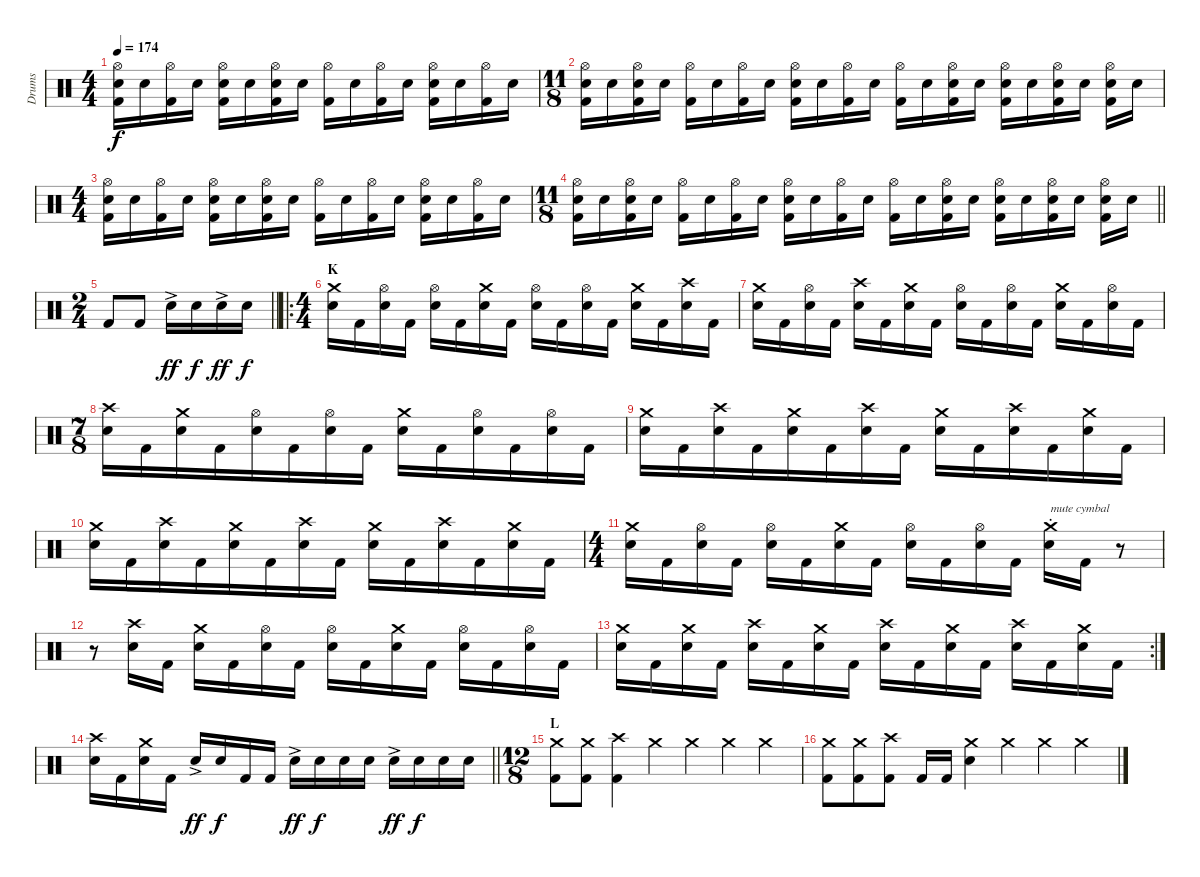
\track ("Drums" "Drums") {instrument percussion}
\staff {score}
\articulation defaults
\ts (4 4)
\tempo 174
\clef neutral
\ks c
("Hi-Hat (open)" "Electric Snare (hit)" "Kick (hit) 2").16{dy f} "Electric Snare (hit)".16 ("Hi-Hat (open)" "Kick (hit) 2").16 "Electric Snare (hit)".16 ("Hi-Hat (open)" "Electric Snare (hit)" "Kick (hit) 2").16 "Electric Snare (hit)".16 ("Hi-Hat (open)" "Electric Snare (hit)" "Kick (hit) 2").16 "Electric Snare (hit)".16 ("Hi-Hat (open)" "Kick (hit) 2").16 "Electric Snare (hit)".16 ("Hi-Hat (open)" "Kick (hit) 2").16 "Electric Snare (hit)".16 ("Hi-Hat (open)" "Electric Snare (hit)" "Kick (hit) 2").16 "Electric Snare (hit)".16 ("Hi-Hat (open)" "Kick (hit) 2").16 "Electric Snare (hit)".16 |
\ts (11 8)
("Hi-Hat (open)" "Electric Snare (hit)" "Kick (hit) 2").16 "Electric Snare (hit)".16 ("Hi-Hat (open)" "Electric Snare (hit)" "Kick (hit) 2").16 "Electric Snare (hit)".16 ("Hi-Hat (open)" "Kick (hit) 2").16 "Electric Snare (hit)".16 ("Hi-Hat (open)" "Kick (hit) 2").16 "Electric Snare (hit)".16 ("Hi-Hat (open)" "Electric Snare (hit)" "Kick (hit) 2").16 "Electric Snare (hit)".16 ("Hi-Hat (open)" "Kick (hit) 2").16 "Electric Snare (hit)".16 ("Hi-Hat (open)" "Kick (hit) 2").16 "Electric Snare (hit)".16 ("Hi-Hat (open)" "Electric Snare (hit)" "Kick (hit) 2").16 "Electric Snare (hit)".16 ("Hi-Hat (open)" "Electric Snare (hit)" "Kick (hit) 2").16 "Electric Snare (hit)".16 ("Hi-Hat (open)" "Electric Snare (hit)" "Kick (hit) 2").16 "Electric Snare (hit)".16 ("Hi-Hat (open)" "Electric Snare (hit)" "Kick (hit) 2").16 "Electric Snare (hit)".16 |
\ts (4 4)
("Hi-Hat (open)" "Electric Snare (hit)" "Kick (hit) 2").16 "Electric Snare (hit)".16 ("Hi-Hat (open)" "Kick (hit) 2").16 "Electric Snare (hit)".16 ("Hi-Hat (open)" "Electric Snare (hit)" "Kick (hit) 2").16 "Electric Snare (hit)".16 ("Hi-Hat (open)" "Electric Snare (hit)" "Kick (hit) 2").16 "Electric Snare (hit)".16 ("Hi-Hat (open)" "Kick (hit) 2").16 "Electric Snare (hit)".16 ("Hi-Hat (open)" "Kick (hit) 2").16 "Electric Snare (hit)".16 ("Hi-Hat (open)" "Electric Snare (hit)" "Kick (hit) 2").16 "Electric Snare (hit)".16 ("Hi-Hat (open)" "Kick (hit) 2").16 "Electric Snare (hit)".16 |
\ts (11 8)
\barLineRight lightlight
("Hi-Hat (open)" "Electric Snare (hit)" "Kick (hit) 2").16 "Electric Snare (hit)".16 ("Hi-Hat (open)" "Electric Snare (hit)" "Kick (hit) 2").16 "Electric Snare (hit)".16 ("Hi-Hat (open)" "Kick (hit) 2").16 "Electric Snare (hit)".16 ("Hi-Hat (open)" "Kick (hit) 2").16 "Electric Snare (hit)".16 ("Hi-Hat (open)" "Electric Snare (hit)" "Kick (hit) 2").16 "Electric Snare (hit)".16 ("Hi-Hat (open)" "Kick (hit) 2").16 "Electric Snare (hit)".16 ("Hi-Hat (open)" "Kick (hit) 2").16 "Electric Snare (hit)".16 ("Hi-Hat (open)" "Electric Snare (hit)" "Kick (hit) 2").16 "Electric Snare (hit)".16 ("Hi-Hat (open)" "Electric Snare (hit)" "Kick (hit) 2").16 "Electric Snare (hit)".16 ("Hi-Hat (open)" "Electric Snare (hit)" "Kick (hit) 2").16 "Electric Snare (hit)".16 ("Hi-Hat (open)" "Electric Snare (hit)" "Kick (hit) 2").16 "Electric Snare (hit)".16 |
\ts (2 4)
\barLineRight lightlight "Kick (hit) 2".8 "Kick (hit) 2".8 "Electric Snare (hit)"{ac}.16{dy ff} "Electric Snare (hit)".16{dy f} "Electric Snare (hit)"{ac}.16{dy ff} "Electric Snare (hit)".16{dy f}
|
\ro
\ts (4 4)
\section ("" "K")
("Crash medium (hit)" "Electric Snare (hit)").16 "Kick (hit) 2".16 ("Hi-Hat (open)" "Electric Snare (hit)").16 "Kick (hit) 2".16 ("Hi-Hat (open)" "Electric Snare (hit)").16 "Kick (hit) 2".16 ("Crash medium (hit)" "Electric Snare (hit)").16 "Kick (hit) 2".16 ("Hi-Hat (open)" "Electric Snare (hit)").16 "Kick (hit) 2".16 ("Hi-Hat (open)" "Electric Snare (hit)").16 "Kick (hit) 2".16 ("Crash medium (hit)" "Electric Snare (hit)").16 "Kick (hit) 2".16 ("Crash high (hit)" "Electric Snare (hit)").16 "Kick (hit) 2".16 |
("Crash medium (hit)" "Electric Snare (hit)").16 "Kick (hit) 2".16 ("Hi-Hat (open)" "Electric Snare (hit)").16 "Kick (hit) 2".16 ("Crash high (hit)" "Electric Snare (hit)").16 "Kick (hit) 2".16 ("Crash medium (hit)" "Electric Snare (hit)").16 "Kick (hit) 2".16 ("Hi-Hat (open)" "Electric Snare (hit)").16 "Kick (hit) 2".16 ("Hi-Hat (open)" "Electric Snare (hit)").16 "Kick (hit) 2".16 ("Crash medium (hit)" "Electric Snare (hit)").16 "Kick (hit) 2".16 ("Hi-Hat (open)" "Electric Snare (hit)").16 "Kick (hit) 2".16 |
\ts (7 8)
("Crash high (hit)" "Electric Snare (hit)").16 "Kick (hit) 2".16 ("Crash medium (hit)" "Electric Snare (hit)").16 "Kick (hit) 2".16 ("Hi-Hat (open)" "Electric Snare (hit)").16 "Kick (hit) 2".16 ("Hi-Hat (open)" "Electric Snare (hit)").16 "Kick (hit) 2".16 ("Crash medium (hit)" "Electric Snare (hit)").16 "Kick (hit) 2".16 ("Hi-Hat (open)" "Electric Snare (hit)").16 "Kick (hit) 2".16 ("Hi-Hat (open)" "Electric Snare (hit)").16 "Kick (hit) 2".16 |
("Crash medium (hit)" "Electric Snare (hit)").16 "Kick (hit) 2".16 ("Crash high (hit)" "Electric Snare (hit)").16 "Kick (hit) 2".16 ("Crash medium (hit)" "Electric Snare (hit)").16 "Kick (hit) 2".16 ("Crash high (hit)" "Electric Snare (hit)").16 "Kick (hit) 2".16 ("Crash medium (hit)" "Electric Snare (hit)").16 "Kick (hit) 2".16 ("Crash high (hit)" "Electric Snare (hit)").16 "Kick (hit) 2".16 ("Crash medium (hit)" "Electric Snare (hit)").16 "Kick (hit) 2".16 |
("Crash medium (hit)" "Electric Snare (hit)").16 "Kick (hit) 2".16 ("Crash high (hit)" "Electric Snare (hit)").16 "Kick (hit) 2".16 ("Crash medium (hit)" "Electric Snare (hit)").16 "Kick (hit) 2".16 ("Crash high (hit)" "Electric Snare (hit)").16 "Kick (hit) 2".16 ("Crash medium (hit)" "Electric Snare (hit)").16 "Kick (hit) 2".16 ("Crash high (hit)" "Electric Snare (hit)").16 "Kick (hit) 2".16 ("Crash medium (hit)" "Electric Snare (hit)").16 "Kick (hit) 2".16 |
\ts (4 4)
("Crash medium (hit)" "Electric Snare (hit)").16 "Kick (hit) 2".16 ("Hi-Hat (open)" "Electric Snare (hit)").16 "Kick (hit) 2".16 ("Hi-Hat (open)" "Electric Snare (hit)").16 "Kick (hit) 2".16 ("Crash medium (hit)" "Electric Snare (hit)").16 "Kick (hit) 2".16 ("Hi-Hat (open)" "Electric Snare (hit)").16 "Kick (hit) 2".16 ("Hi-Hat (open)" "Electric Snare (hit)").16 "Kick (hit) 2".16 ("Crash medium (hit)"{st} "Electric Snare (hit)").16{txt "mute cymbal"} "Kick (hit) 2".16 r.8{volume 0} |
r.8 ("Crash high (hit)" "Electric Snare (hit)").16{volume 14} "Kick (hit) 2".16 ("Crash medium (hit)" "Electric Snare (hit)").16 "Kick (hit) 2".16 ("Hi-Hat (open)" "Electric Snare (hit)").16 "Kick (hit) 2".16 ("Hi-Hat (open)" "Electric Snare (hit)").16 "Kick (hit) 2".16 ("Crash medium (hit)" "Electric Snare (hit)").16 "Kick (hit) 2".16 ("Hi-Hat (open)" "Electric Snare (hit)").16 "Kick (hit) 2".16 ("Hi-Hat (open)" "Electric Snare (hit)").16 "Kick (hit) 2".16 |
\rc 2
("Crash medium (hit)" "Electric Snare (hit)").16 "Kick (hit) 2".16 ("Crash medium (hit)" "Electric Snare (hit)").16 "Kick (hit) 2".16 ("Crash high (hit)" "Electric Snare (hit)").16 "Kick (hit) 2".16 ("Crash medium (hit)" "Electric Snare (hit)").16 "Kick (hit) 2".16 ("Crash high (hit)" "Electric Snare (hit)").16 "Kick (hit) 2".16 ("Crash medium (hit)" "Electric Snare (hit)").16 "Kick (hit) 2".16 ("Crash high (hit)" "Electric Snare (hit)").16 "Kick (hit) 2".16 ("Crash medium (hit)" "Electric Snare (hit)").16 "Kick (hit) 2".16 |
\barLineRight lightlight
("Crash high (hit)" "Electric Snare (hit)").16 "Kick (hit) 2".16 ("Crash medium (hit)" "Electric Snare (hit)").16 "Kick (hit) 2".16 "Electric Snare (hit)"{ac}.16{dy ff} "Electric Snare (hit)".16{dy f} "Kick (hit) 2".16 "Kick (hit) 2".16 "Electric Snare (hit)"{ac}.16{dy ff} "Electric Snare (hit)".16{dy f} "Electric Snare (hit)".16 "Electric Snare (hit)".16 "Electric Snare (hit)"{ac}.16{dy ff} "Electric Snare (hit)".16{dy f} "Electric Snare (hit)".16 "Electric Snare (hit)".16 |
\ts (12 8)
\section ("" "L")
("Crash medium (hit)" "Kick (hit) 2").8 ("Crash medium (hit)" "Kick (hit) 2").8 ("Crash high (hit)" "Kick (hit) 2").4 "Crash medium (hit)".4 "Crash medium (hit)".4 "Crash medium (hit)".4 "Crash medium (hit)".4 |
("Crash medium (hit)" "Kick (hit) 2").8 ("Crash medium (hit)" "Kick (hit) 2").8 ("Crash high (hit)" "Kick (hit) 2").8 "Kick (hit) 2".16 "Kick (hit) 2".16 ("Crash medium (hit)" "Electric Snare (hit)").4 "Crash medium (hit)".4 "Crash medium (hit)".4 "Crash medium (hit)".4
